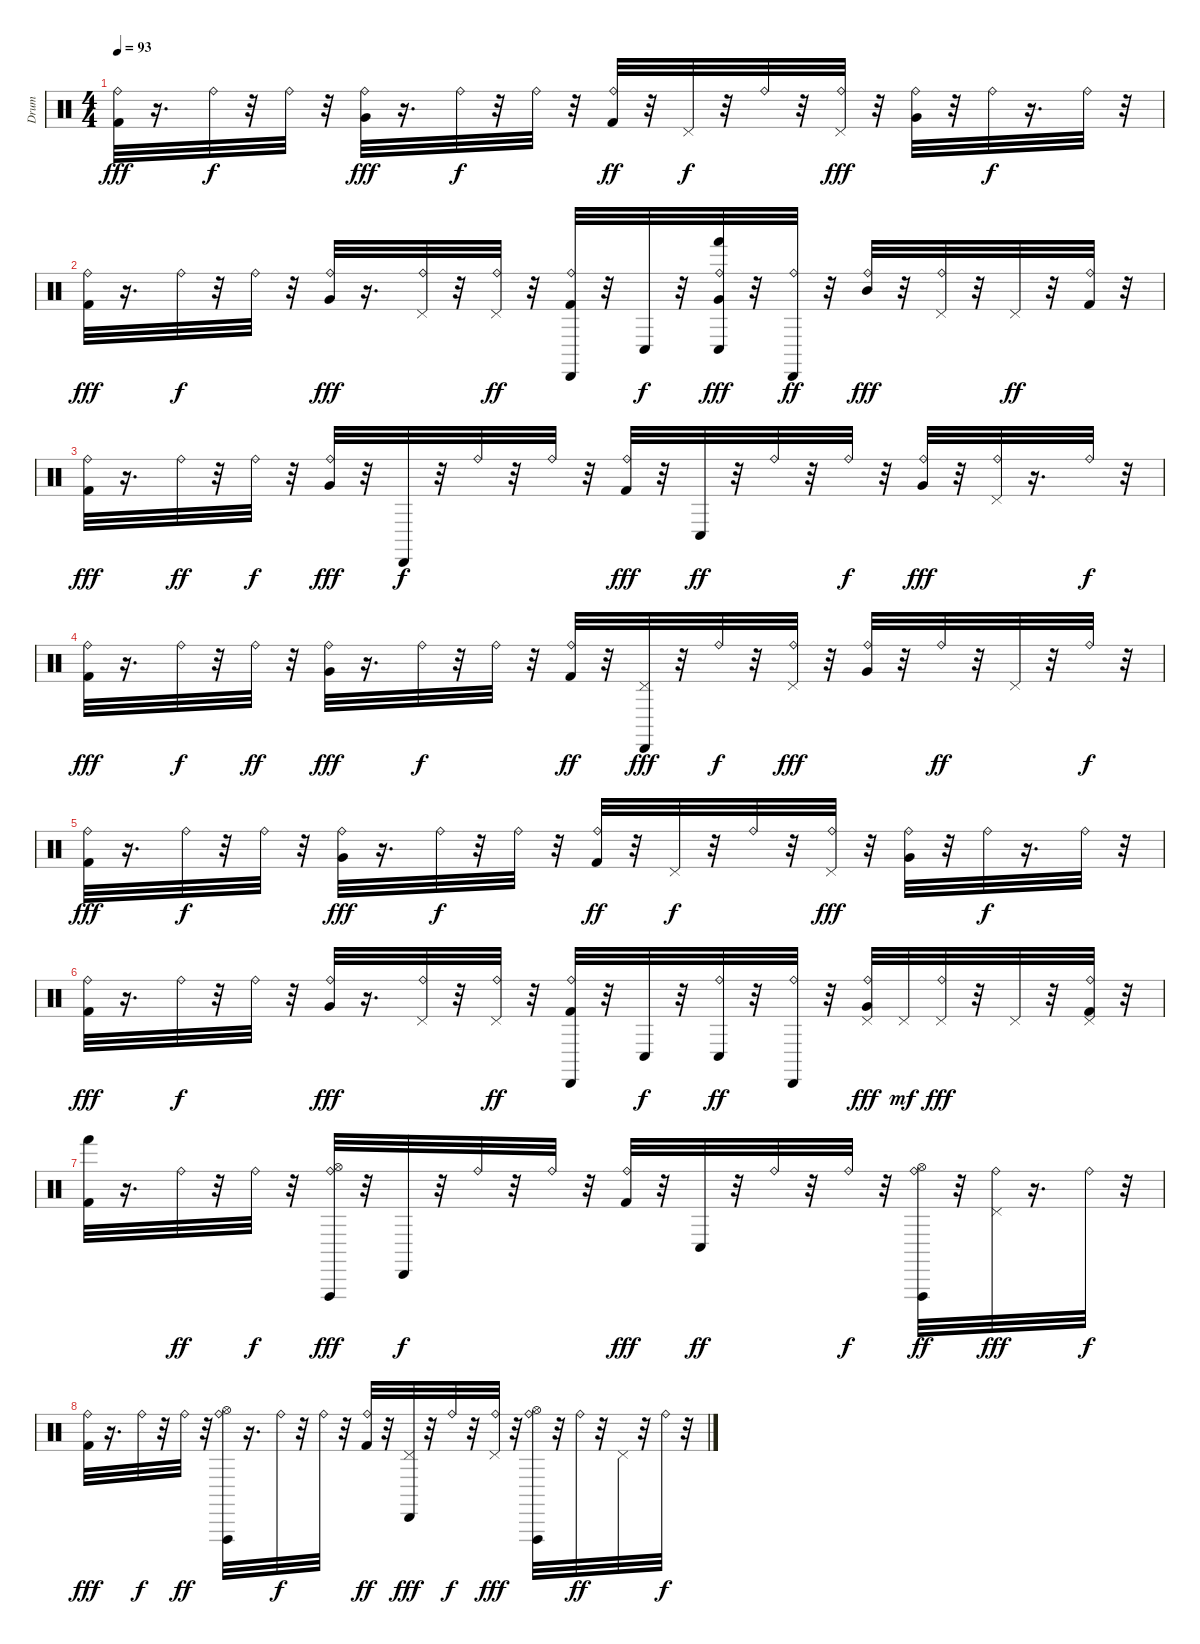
\track ("Drum" "Drum") {instrument percussion}
\staff {score}
\articulation defaults
\ts (4 4)
\tempo 93
\clef neutral
\ks c
("Kick (hit) 2" "Ride (bell)").32{dy fff} r.16{d} "Ride (bell)".32{dy f} r.32 "Ride (bell)".32 r.32 ("Ride (bell)" "Very Low Tom (hit)").32{dy fff} r.16{d} "Ride (bell)".32{dy f} r.32 "Ride (bell)".32 r.32 ("Kick (hit) 2" "Ride (bell)").32{dy ff} r.32 "Pedal Hi-Hat (hit)".32{dy f} r.32 "Ride (bell)".32 r.32 ("Ride (bell)" "Pedal Hi-Hat (hit)").32{dy fff} r.32 ("Ride (bell)" "Very Low Tom (hit)").32 r.32 "Ride (bell)".32{dy f} r.16{d} "Ride (bell)".32 r.32 |
("Kick (hit) 2" "Ride (bell)").32{dy fff} r.16{d} "Ride (bell)".32{dy f} r.32 "Ride (bell)".32 r.32 ("Ride (bell)" "Very Low Tom (hit)").32{dy fff} r.16{d} ("Ride (bell)" "Pedal Hi-Hat (hit)").32 r.32 ("Ride (bell)" "Pedal Hi-Hat (hit)").32{dy ff} r.32 ("Cabasa (hit)" "Kick (hit) 2" "Ride (bell)").32 r.32 "Conga low (hit)".32{dy f} r.32 ("Conga low (hit)" "Hand (hit)" "Ride (bell)" "Very Low Tom (hit)").32{dy fff} r.32 ("Cabasa (hit)" "Ride (bell)").32{dy ff} r.32 ("Mid Tom (hit)" "Ride (bell)").32{dy fff} r.32 ("Ride (bell)" "Pedal Hi-Hat (hit)").32 r.32 "Pedal Hi-Hat (hit)".32{dy ff} r.32 ("Kick (hit) 2" "Ride (bell)").32 r.32 |
("Kick (hit) 2" "Ride (bell)").32{dy fff} r.16{d} "Ride (bell)".32{dy ff} r.32 "Ride (bell)".32{dy f} r.32 ("Ride (bell)" "Very Low Tom (hit)").32{dy fff} r.32 "Cabasa (hit)".32{dy f} r.32 "Ride (bell)".32 r.32 "Ride (bell)".32 r.32 ("Kick (hit) 2" "Ride (bell)").32{dy fff} r.32 "Conga low (hit)".32{dy ff} r.32 "Ride (bell)".32 r.32 "Ride (bell)".32{dy f} r.32 ("Ride (bell)" "Very Low Tom (hit)").32{dy fff} r.32 ("Ride (bell)" "Pedal Hi-Hat (hit)").32 r.16{d} "Ride (bell)".32{dy f} r.32 |
("Kick (hit) 2" "Ride (bell)").32{dy fff} r.16{d} "Ride (bell)".32{dy f} r.32 "Ride (bell)".32{dy ff} r.32 ("Ride (bell)" "Very Low Tom (hit)").32{dy fff} r.16{d} "Ride (bell)".32{dy f} r.32 "Ride (bell)".32 r.32 ("Kick (hit) 2" "Ride (bell)").32{dy ff} r.32 ("Cabasa (hit)" "Pedal Hi-Hat (hit)").32{dy fff} r.32 "Ride (bell)".32{dy f} r.32 ("Ride (bell)" "Pedal Hi-Hat (hit)").32{dy fff} r.32 ("Ride (bell)" "Very Low Tom (hit)").32 r.32 "Ride (bell)".32{dy ff} r.32 "Pedal Hi-Hat (hit)".32 r.32 "Ride (bell)".32{dy f} r.32 |
("Kick (hit) 2" "Ride (bell)").32{dy fff} r.16{d} "Ride (bell)".32{dy f} r.32 "Ride (bell)".32 r.32 ("Ride (bell)" "Very Low Tom (hit)").32{dy fff} r.16{d} "Ride (bell)".32{dy f} r.32 "Ride (bell)".32 r.32 ("Kick (hit) 2" "Ride (bell)").32{dy ff} r.32 "Pedal Hi-Hat (hit)".32{dy f} r.32 "Ride (bell)".32 r.32 ("Ride (bell)" "Pedal Hi-Hat (hit)").32{dy fff} r.32 ("Ride (bell)" "Very Low Tom (hit)").32 r.32 "Ride (bell)".32{dy f} r.16{d} "Ride (bell)".32 r.32 |
("Kick (hit) 2" "Ride (bell)").32{dy fff} r.16{d} "Ride (bell)".32{dy f} r.32 "Ride (bell)".32 r.32 ("Ride (bell)" "Very Low Tom (hit)").32{dy fff} r.16{d} ("Ride (bell)" "Pedal Hi-Hat (hit)").32 r.32 ("Ride (bell)" "Pedal Hi-Hat (hit)").32{dy ff} r.32 ("Cabasa (hit)" "Kick (hit) 2" "Ride (bell)").32 r.32 "Conga low (hit)".32{dy f} r.32 ("Conga low (hit)" "Ride (bell)").32{dy ff} r.32 ("Cabasa (hit)" "Ride (bell)").32 r.32 ("Ride (bell)" "Very Low Tom (hit)" "Pedal Hi-Hat (hit)").32{dy fff} "Pedal Hi-Hat (hit)".32{dy mf} ("Ride (bell)" "Pedal Hi-Hat (hit)").32{dy fff} r.32 "Pedal Hi-Hat (hit)".32 r.32 ("Kick (hit) 2" "Ride (bell)" "Pedal Hi-Hat (hit)").32 r.32 |
("Hand (hit)" "Kick (hit) 2").32 r.16{d} "Ride (bell)".32{dy ff} r.32 "Ride (bell)".32{dy f} r.32 ("Ride (bell)" "Vibraslap (hit)" "Hi-Hat (open)").32{dy fff} r.32 "Cabasa (hit)".32{dy f} r.32 "Ride (bell)".32 r.32 "Ride (bell)".32 r.32 ("Kick (hit) 2" "Ride (bell)").32{dy fff} r.32 "Conga low (hit)".32{dy ff} r.32 "Ride (bell)".32 r.32 "Ride (bell)".32{dy f} r.32 ("Ride (bell)" "Vibraslap (hit)" "Hi-Hat (open)").32{dy ff} r.32 ("Ride (bell)" "Pedal Hi-Hat (hit)").32{dy fff} r.16{d} "Ride (bell)".32{dy f} r.32 |
("Kick (hit) 2" "Ride (bell)").32{dy fff} r.16{d} "Ride (bell)".32{dy f} r.32 "Ride (bell)".32{dy ff} r.32 ("Ride (bell)" "Vibraslap (hit)" "Hi-Hat (open)").32 r.16{d} "Ride (bell)".32{dy f} r.32 "Ride (bell)".32 r.32 ("Kick (hit) 2" "Ride (bell)").32{dy ff} r.32 ("Cabasa (hit)" "Pedal Hi-Hat (hit)").32{dy fff} r.32 "Ride (bell)".32{dy f} r.32 ("Ride (bell)" "Pedal Hi-Hat (hit)").32{dy fff} r.32 ("Ride (bell)" "Vibraslap (hit)" "Hi-Hat (open)").32 r.32 "Ride (bell)".32{dy ff} r.32 "Pedal Hi-Hat (hit)".32 r.32 "Ride (bell)".32{dy f} r.32
